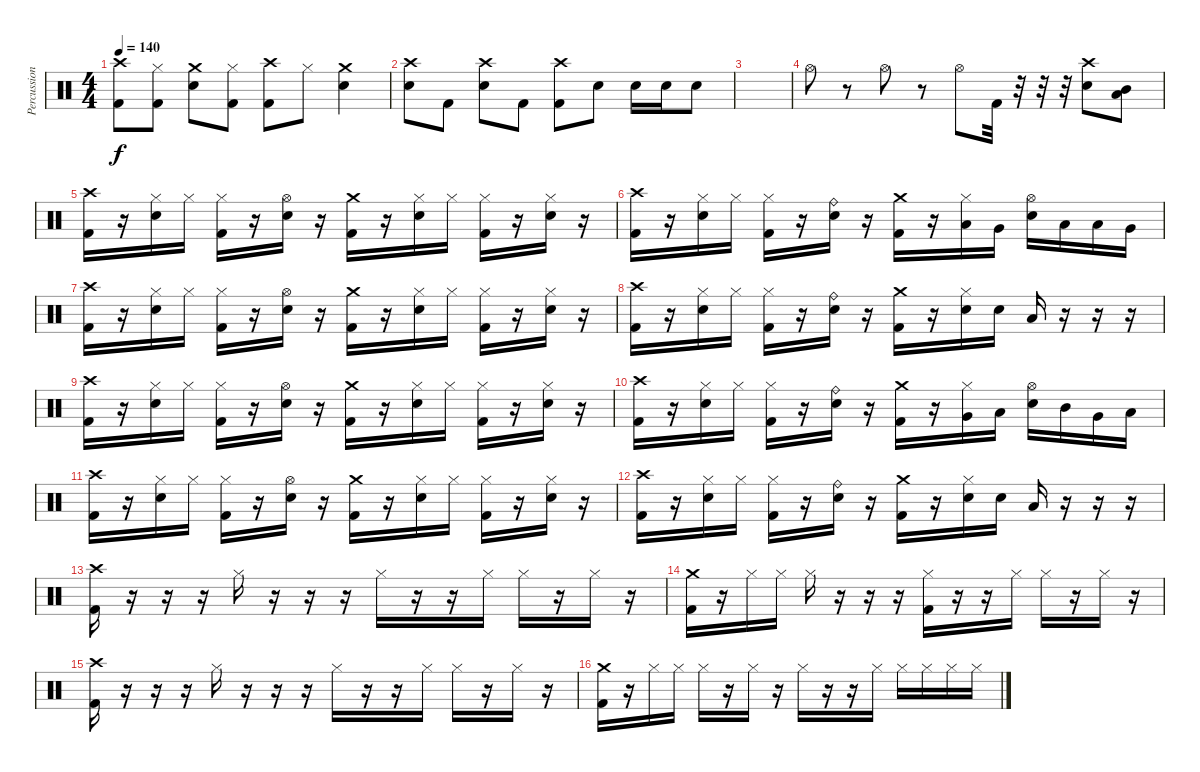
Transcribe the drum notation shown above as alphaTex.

\track ("Percussion" "Percussion") {instrument percussion}
\staff {score}
\articulation defaults
\ts (4 4)
\tempo 140
\clef neutral
\ks c
("Crash high (hit)" "Kick (hit) 2").8{dy f} ("Hi-Hat (closed)" "Kick (hit) 2").8 ("Crash medium (hit)" "Electric Snare (hit)").8 ("Hi-Hat (closed)" "Kick (hit) 2").8 ("Crash high (hit)" "Kick (hit) 2").8 "Hi-Hat (closed)".8 ("Crash medium (hit)" "Electric Snare (hit)").4 |
("Crash high (hit)" "Electric Snare (hit)").8 "Kick (hit) 2".8 ("Crash high (hit)" "Electric Snare (hit)").8 "Kick (hit) 2".8 ("Crash high (hit)" "Kick (hit) 2").8 "Electric Snare (hit)".8 "Electric Snare (hit)".16 "Electric Snare (hit)".16 "Electric Snare (hit)".8 |
|
"Hi-Hat (open)".8 r.8 "Hi-Hat (open)".8 r.8 "Hi-Hat (open)".8 "Kick (hit) 2".32 r.32 r.32 r.32 ("Crash high (hit)" "Electric Snare (hit)").8 ("Mid Tom (hit)" "Low Tom (hit)").8 |
("Crash high (hit)" "Kick (hit) 2").16 r.16 ("Hi-Hat (closed)" "Electric Snare (hit)").16 "Hi-Hat (closed)".16 ("Hi-Hat (closed)" "Kick (hit) 2").16 r.16 ("Hi-Hat (open)" "Electric Snare (hit)").16 r.16 ("Crash medium (hit)" "Kick (hit) 2").16 r.16 ("Hi-Hat (closed)" "Electric Snare (hit)").16 "Hi-Hat (closed)".16 ("Hi-Hat (closed)" "Kick (hit) 2").16 r.16 ("Hi-Hat (closed)" "Electric Snare (hit)").16 r.16 |
("Crash high (hit)" "Kick (hit) 2").16 r.16 ("Hi-Hat (closed)" "Electric Snare (hit)").16 "Hi-Hat (closed)".16 ("Hi-Hat (closed)" "Kick (hit) 2").16 r.16 ("Ride (bell)" "Electric Snare (hit)").16 r.16 ("Crash medium (hit)" "Kick (hit) 2").16 r.16 ("Hi-Hat (closed)" "Low Floor Tom (hit)").16 "Very Low Tom (hit)".16 ("Hi-Hat (open)" "Electric Snare (hit)").16 "Low Tom (hit)".16 "Low Floor Tom (hit)".16 "Very Low Tom (hit)".16 |
("Crash high (hit)" "Kick (hit) 2").16 r.16 ("Hi-Hat (closed)" "Electric Snare (hit)").16 "Hi-Hat (closed)".16 ("Hi-Hat (closed)" "Kick (hit) 2").16 r.16 ("Hi-Hat (open)" "Electric Snare (hit)").16 r.16 ("Crash medium (hit)" "Kick (hit) 2").16 r.16 ("Hi-Hat (closed)" "Electric Snare (hit)").16 "Hi-Hat (closed)".16 ("Hi-Hat (closed)" "Kick (hit) 2").16 r.16 ("Hi-Hat (closed)" "Electric Snare (hit)").16 r.16 |
("Crash high (hit)" "Kick (hit) 2").16 r.16 ("Hi-Hat (closed)" "Electric Snare (hit)").16 "Hi-Hat (closed)".16 ("Hi-Hat (closed)" "Kick (hit) 2").16 r.16 ("Ride (bell)" "Electric Snare (hit)").16 r.16 ("Crash medium (hit)" "Kick (hit) 2").16 r.16 ("Hi-Hat (closed)" "Electric Snare (hit)").16 "Electric Snare (hit)".16 "Low Tom (hit)".16 r.16 r.16 r.16 |
("Crash high (hit)" "Kick (hit) 2").16 r.16 ("Hi-Hat (closed)" "Electric Snare (hit)").16 "Hi-Hat (closed)".16 ("Hi-Hat (closed)" "Kick (hit) 2").16 r.16 ("Hi-Hat (open)" "Electric Snare (hit)").16 r.16 ("Crash medium (hit)" "Kick (hit) 2").16 r.16 ("Hi-Hat (closed)" "Electric Snare (hit)").16 "Hi-Hat (closed)".16 ("Hi-Hat (closed)" "Kick (hit) 2").16 r.16 ("Hi-Hat (closed)" "Electric Snare (hit)").16 r.16 |
("Crash high (hit)" "Kick (hit) 2").16 r.16 ("Hi-Hat (closed)" "Electric Snare (hit)").16 "Hi-Hat (closed)".16 ("Hi-Hat (closed)" "Kick (hit) 2").16 r.16 ("Ride (bell)" "Electric Snare (hit)").16 r.16 ("Crash medium (hit)" "Kick (hit) 2").16 r.16 ("Hi-Hat (closed)" "Very Low Tom (hit)").16 "Low Tom (hit)".16 ("Hi-Hat (open)" "Electric Snare (hit)").16 "Mid Tom (hit)".16 "Very Low Tom (hit)".16 "Low Tom (hit)".16 |
("Crash high (hit)" "Kick (hit) 2").16 r.16 ("Hi-Hat (closed)" "Electric Snare (hit)").16 "Hi-Hat (closed)".16 ("Hi-Hat (closed)" "Kick (hit) 2").16 r.16 ("Hi-Hat (open)" "Electric Snare (hit)").16 r.16 ("Crash medium (hit)" "Kick (hit) 2").16 r.16 ("Hi-Hat (closed)" "Electric Snare (hit)").16 "Hi-Hat (closed)".16 ("Hi-Hat (closed)" "Kick (hit) 2").16 r.16 ("Hi-Hat (closed)" "Electric Snare (hit)").16 r.16 |
("Crash high (hit)" "Kick (hit) 2").16 r.16 ("Hi-Hat (closed)" "Electric Snare (hit)").16 "Hi-Hat (closed)".16 ("Hi-Hat (closed)" "Kick (hit) 2").16 r.16 ("Ride (bell)" "Electric Snare (hit)").16 r.16 ("Crash medium (hit)" "Kick (hit) 2").16 r.16 ("Hi-Hat (closed)" "Electric Snare (hit)").16 "Electric Snare (hit)".16 "Low Tom (hit)".16 r.16 r.16 r.16 |
("Crash high (hit)" "Kick (hit) 2").16 r.16 r.16 r.16 "Hi-Hat (closed)".16 r.16 r.16 r.16 "Hi-Hat (closed)".16 r.16 r.16 "Hi-Hat (closed)".16 "Hi-Hat (closed)".16 r.16 "Hi-Hat (closed)".16 r.16 |
("Crash medium (hit)" "Kick (hit) 2").16 r.16 "Hi-Hat (closed)".16 "Hi-Hat (closed)".16 "Hi-Hat (closed)".16 r.16 r.16 r.16 ("Hi-Hat (closed)" "Kick (hit) 2").16 r.16 r.16 "Hi-Hat (closed)".16 "Hi-Hat (closed)".16 r.16 "Hi-Hat (closed)".16 r.16 |
("Crash high (hit)" "Kick (hit) 2").16 r.16 r.16 r.16 "Hi-Hat (closed)".16 r.16 r.16 r.16 "Hi-Hat (closed)".16 r.16 r.16 "Hi-Hat (closed)".16 "Hi-Hat (closed)".16 r.16 "Hi-Hat (closed)".16 r.16 |
("Crash medium (hit)" "Kick (hit) 2").16 r.16 "Hi-Hat (closed)".16 "Hi-Hat (closed)".16 "Hi-Hat (closed)".16 r.16 "Hi-Hat (closed)".16 r.16 "Hi-Hat (closed)".16 r.16 r.16 "Hi-Hat (closed)".16 "Hi-Hat (closed)".16 "Hi-Hat (closed)".16 "Hi-Hat (closed)".16 "Hi-Hat (closed)".16
